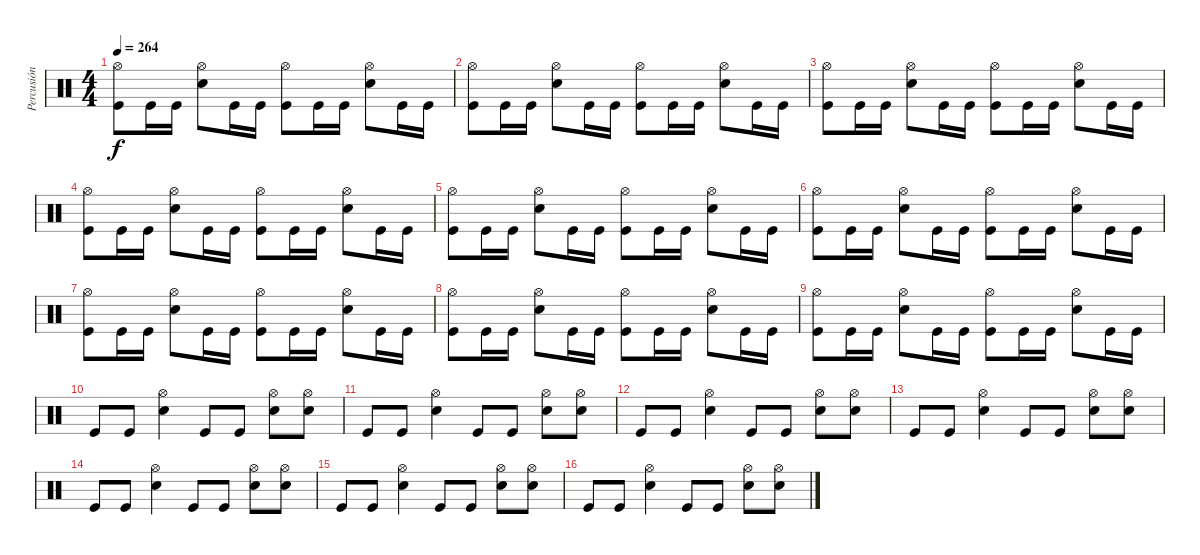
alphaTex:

\track ("Percusión" "Percusión") {instrument percussion}
\staff {score}
\articulation defaults
\ts (4 4)
\tempo 264
\clef neutral
\ks c
("Hi-Hat (open)" "Kick (hit)").8{dy f} "Kick (hit)".16 "Kick (hit)".16 ("Hi-Hat (open)" "Snare (hit) 2").8 "Kick (hit)".16 "Kick (hit)".16 ("Hi-Hat (open)" "Kick (hit)").8 "Kick (hit)".16 "Kick (hit)".16 ("Hi-Hat (open)" "Snare (hit) 2").8 "Kick (hit)".16 "Kick (hit)".16 |
("Hi-Hat (open)" "Kick (hit)").8 "Kick (hit)".16 "Kick (hit)".16 ("Hi-Hat (open)" "Snare (hit) 2").8 "Kick (hit)".16 "Kick (hit)".16 ("Hi-Hat (open)" "Kick (hit)").8 "Kick (hit)".16 "Kick (hit)".16 ("Hi-Hat (open)" "Snare (hit) 2").8 "Kick (hit)".16 "Kick (hit)".16 |
("Hi-Hat (open)" "Kick (hit)").8 "Kick (hit)".16 "Kick (hit)".16 ("Hi-Hat (open)" "Snare (hit) 2").8 "Kick (hit)".16 "Kick (hit)".16 ("Hi-Hat (open)" "Kick (hit)").8 "Kick (hit)".16 "Kick (hit)".16 ("Hi-Hat (open)" "Snare (hit) 2").8 "Kick (hit)".16 "Kick (hit)".16 |
("Hi-Hat (open)" "Kick (hit)").8 "Kick (hit)".16 "Kick (hit)".16 ("Hi-Hat (open)" "Snare (hit) 2").8 "Kick (hit)".16 "Kick (hit)".16 ("Hi-Hat (open)" "Kick (hit)").8 "Kick (hit)".16 "Kick (hit)".16 ("Hi-Hat (open)" "Snare (hit) 2").8 "Kick (hit)".16 "Kick (hit)".16 |
("Hi-Hat (open)" "Kick (hit)").8 "Kick (hit)".16 "Kick (hit)".16 ("Hi-Hat (open)" "Snare (hit) 2").8 "Kick (hit)".16 "Kick (hit)".16 ("Hi-Hat (open)" "Kick (hit)").8 "Kick (hit)".16 "Kick (hit)".16 ("Hi-Hat (open)" "Snare (hit) 2").8 "Kick (hit)".16 "Kick (hit)".16 |
("Hi-Hat (open)" "Kick (hit)").8 "Kick (hit)".16 "Kick (hit)".16 ("Hi-Hat (open)" "Snare (hit) 2").8 "Kick (hit)".16 "Kick (hit)".16 ("Hi-Hat (open)" "Kick (hit)").8 "Kick (hit)".16 "Kick (hit)".16 ("Hi-Hat (open)" "Snare (hit) 2").8 "Kick (hit)".16 "Kick (hit)".16 |
("Hi-Hat (open)" "Kick (hit)").8 "Kick (hit)".16 "Kick (hit)".16 ("Hi-Hat (open)" "Snare (hit) 2").8 "Kick (hit)".16 "Kick (hit)".16 ("Hi-Hat (open)" "Kick (hit)").8 "Kick (hit)".16 "Kick (hit)".16 ("Hi-Hat (open)" "Snare (hit) 2").8 "Kick (hit)".16 "Kick (hit)".16 |
("Hi-Hat (open)" "Kick (hit)").8 "Kick (hit)".16 "Kick (hit)".16 ("Hi-Hat (open)" "Snare (hit) 2").8 "Kick (hit)".16 "Kick (hit)".16 ("Hi-Hat (open)" "Kick (hit)").8 "Kick (hit)".16 "Kick (hit)".16 ("Hi-Hat (open)" "Snare (hit) 2").8 "Kick (hit)".16 "Kick (hit)".16 |
("Hi-Hat (open)" "Kick (hit)").8 "Kick (hit)".16 "Kick (hit)".16 ("Hi-Hat (open)" "Snare (hit) 2").8 "Kick (hit)".16 "Kick (hit)".16 ("Hi-Hat (open)" "Kick (hit)").8 "Kick (hit)".16 "Kick (hit)".16 ("Hi-Hat (open)" "Snare (hit) 2").8 "Kick (hit)".16 "Kick (hit)".16 |
"Kick (hit)".8 "Kick (hit)".8 ("Hi-Hat (open)" "Snare (hit) 2").4 "Kick (hit)".8 "Kick (hit)".8 ("Hi-Hat (open)" "Snare (hit) 2").8 ("Hi-Hat (open)" "Snare (hit) 2").8 |
"Kick (hit)".8 "Kick (hit)".8 ("Hi-Hat (open)" "Snare (hit) 2").4 "Kick (hit)".8 "Kick (hit)".8 ("Hi-Hat (open)" "Snare (hit) 2").8 ("Hi-Hat (open)" "Snare (hit) 2").8 |
"Kick (hit)".8 "Kick (hit)".8 ("Hi-Hat (open)" "Snare (hit) 2").4 "Kick (hit)".8 "Kick (hit)".8 ("Hi-Hat (open)" "Snare (hit) 2").8 ("Hi-Hat (open)" "Snare (hit) 2").8 |
"Kick (hit)".8 "Kick (hit)".8 ("Hi-Hat (open)" "Snare (hit) 2").4 "Kick (hit)".8 "Kick (hit)".8 ("Hi-Hat (open)" "Snare (hit) 2").8 ("Hi-Hat (open)" "Snare (hit) 2").8 |
"Kick (hit)".8 "Kick (hit)".8 ("Hi-Hat (open)" "Snare (hit) 2").4 "Kick (hit)".8 "Kick (hit)".8 ("Hi-Hat (open)" "Snare (hit) 2").8 ("Hi-Hat (open)" "Snare (hit) 2").8 |
"Kick (hit)".8 "Kick (hit)".8 ("Hi-Hat (open)" "Snare (hit) 2").4 "Kick (hit)".8 "Kick (hit)".8 ("Hi-Hat (open)" "Snare (hit) 2").8 ("Hi-Hat (open)" "Snare (hit) 2").8 |
"Kick (hit)".8 "Kick (hit)".8 ("Hi-Hat (open)" "Snare (hit) 2").4 "Kick (hit)".8 "Kick (hit)".8 ("Hi-Hat (open)" "Snare (hit) 2").8 ("Hi-Hat (open)" "Snare (hit) 2").8
